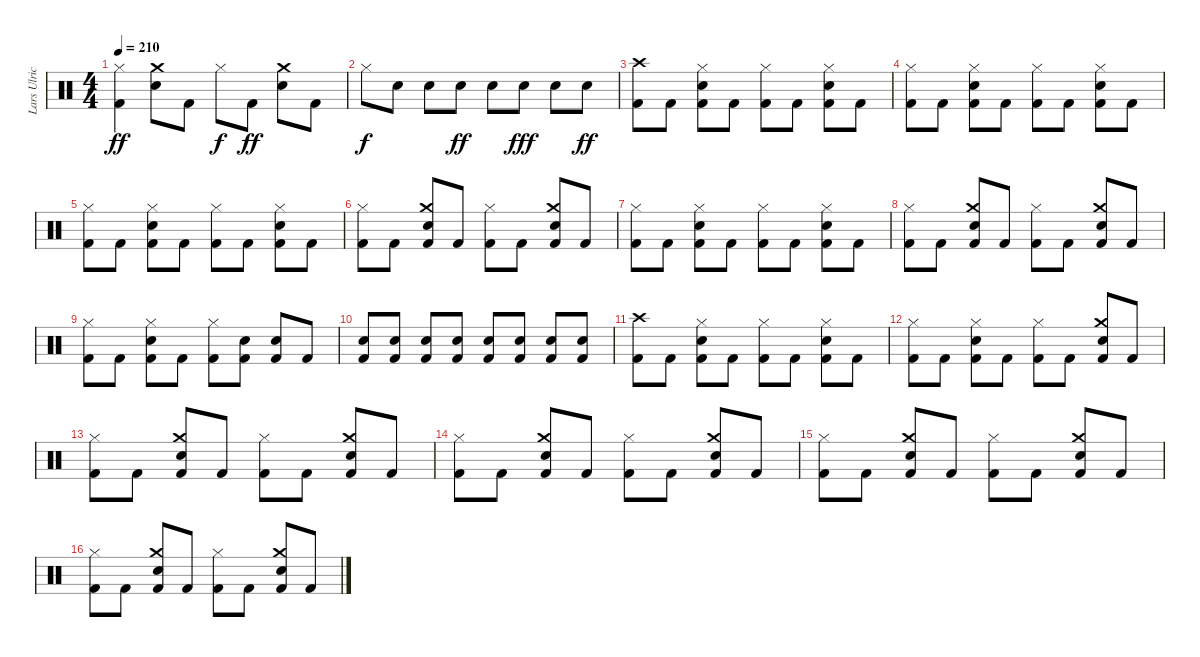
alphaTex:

\track ("Lars Ulrich" "Lars Ulric") {instrument percussion}
\staff {score}
\articulation defaults
\ts (4 4)
\tempo 210
\clef neutral
\ks c
("Hi-Hat (closed)" "Kick (hit) 2").4{dy ff} ("Crash medium (hit)" "Snare (hit) 2").8 "Kick (hit) 2".8 "Hi-Hat (closed)".8{dy f} "Kick (hit) 2".8{dy ff} ("Crash medium (hit)" "Snare (hit) 2").8 "Kick (hit) 2".8 |
"Hi-Hat (closed)".8{dy f} "Snare (hit) 2".8 "Snare (hit) 2".8 "Snare (hit) 2".8{dy ff} "Snare (hit) 2".8 "Snare (hit) 2".8{dy fff} "Snare (hit) 2".8 "Snare (hit) 2".8{dy ff} |
("Crash high (hit)" "Kick (hit) 2").8 "Kick (hit) 2".8 ("Hi-Hat (closed)" "Snare (hit) 2" "Kick (hit) 2").8 "Kick (hit) 2".8 ("Hi-Hat (closed)" "Kick (hit) 2").8 "Kick (hit) 2".8 ("Hi-Hat (closed)" "Snare (hit) 2" "Kick (hit) 2").8 "Kick (hit) 2".8 |
("Hi-Hat (closed)" "Kick (hit) 2").8 "Kick (hit) 2".8 ("Hi-Hat (closed)" "Snare (hit) 2" "Kick (hit) 2").8 "Kick (hit) 2".8 ("Hi-Hat (closed)" "Kick (hit) 2").8 "Kick (hit) 2".8 ("Hi-Hat (closed)" "Snare (hit) 2" "Kick (hit) 2").8 "Kick (hit) 2".8 |
("Hi-Hat (closed)" "Kick (hit) 2").8 "Kick (hit) 2".8 ("Hi-Hat (closed)" "Snare (hit) 2" "Kick (hit) 2").8 "Kick (hit) 2".8 ("Hi-Hat (closed)" "Kick (hit) 2").8 "Kick (hit) 2".8 ("Hi-Hat (closed)" "Snare (hit) 2" "Kick (hit) 2").8 "Kick (hit) 2".8 |
("Hi-Hat (closed)" "Kick (hit) 2").8 "Kick (hit) 2".8 ("Crash medium (hit)" "Snare (hit) 2" "Kick (hit) 2").8 "Kick (hit) 2".8 ("Hi-Hat (closed)" "Kick (hit) 2").8 "Kick (hit) 2".8 ("Crash medium (hit)" "Snare (hit) 2" "Kick (hit) 2").8 "Kick (hit) 2".8 |
("Hi-Hat (closed)" "Kick (hit) 2").8 "Kick (hit) 2".8 ("Hi-Hat (closed)" "Snare (hit) 2" "Kick (hit) 2").8 "Kick (hit) 2".8 ("Hi-Hat (closed)" "Kick (hit) 2").8 "Kick (hit) 2".8 ("Hi-Hat (closed)" "Snare (hit) 2" "Kick (hit) 2").8 "Kick (hit) 2".8 |
("Hi-Hat (closed)" "Kick (hit) 2").8 "Kick (hit) 2".8 ("Crash medium (hit)" "Snare (hit) 2" "Kick (hit) 2").8 "Kick (hit) 2".8 ("Hi-Hat (closed)" "Kick (hit) 2").8 "Kick (hit) 2".8 ("Crash medium (hit)" "Snare (hit) 2" "Kick (hit) 2").8 "Kick (hit) 2".8 |
("Hi-Hat (closed)" "Kick (hit) 2").8 "Kick (hit) 2".8 ("Hi-Hat (closed)" "Snare (hit) 2" "Kick (hit) 2").8 "Kick (hit) 2".8 ("Hi-Hat (closed)" "Kick (hit) 2").8 ("Snare (hit) 2" "Kick (hit) 2").8 ("Snare (hit) 2" "Kick (hit) 2").8 "Kick (hit) 2".8 |
("Snare (hit) 2" "Kick (hit) 2").8 ("Snare (hit) 2" "Kick (hit) 2").8 ("Snare (hit) 2" "Kick (hit) 2").8 ("Snare (hit) 2" "Kick (hit) 2").8 ("Snare (hit) 2" "Kick (hit) 2").8 ("Snare (hit) 2" "Kick (hit) 2").8 ("Snare (hit) 2" "Kick (hit) 2").8 ("Snare (hit) 2" "Kick (hit) 2").8 |
("Crash high (hit)" "Kick (hit) 2").8 "Kick (hit) 2".8 ("Hi-Hat (closed)" "Snare (hit) 2" "Kick (hit) 2").8 "Kick (hit) 2".8 ("Hi-Hat (closed)" "Kick (hit) 2").8 "Kick (hit) 2".8 ("Hi-Hat (closed)" "Snare (hit) 2" "Kick (hit) 2").8 "Kick (hit) 2".8 |
("Hi-Hat (closed)" "Kick (hit) 2").8 "Kick (hit) 2".8 ("Hi-Hat (closed)" "Snare (hit) 2" "Kick (hit) 2").8 "Kick (hit) 2".8 ("Hi-Hat (closed)" "Kick (hit) 2").8 "Kick (hit) 2".8 ("Crash medium (hit)" "Snare (hit) 2" "Kick (hit) 2").8 "Kick (hit) 2".8 |
("Hi-Hat (closed)" "Kick (hit) 2").8 "Kick (hit) 2".8 ("Crash medium (hit)" "Snare (hit) 2" "Kick (hit) 2").8 "Kick (hit) 2".8 ("Hi-Hat (closed)" "Kick (hit) 2").8 "Kick (hit) 2".8 ("Crash medium (hit)" "Snare (hit) 2" "Kick (hit) 2").8 "Kick (hit) 2".8 |
("Hi-Hat (closed)" "Kick (hit) 2").8 "Kick (hit) 2".8 ("Crash medium (hit)" "Snare (hit) 2" "Kick (hit) 2").8 "Kick (hit) 2".8 ("Hi-Hat (closed)" "Kick (hit) 2").8 "Kick (hit) 2".8 ("Crash medium (hit)" "Snare (hit) 2" "Kick (hit) 2").8 "Kick (hit) 2".8 |
("Hi-Hat (closed)" "Kick (hit) 2").8 "Kick (hit) 2".8 ("Crash medium (hit)" "Snare (hit) 2" "Kick (hit) 2").8 "Kick (hit) 2".8 ("Hi-Hat (closed)" "Kick (hit) 2").8 "Kick (hit) 2".8 ("Crash medium (hit)" "Snare (hit) 2" "Kick (hit) 2").8 "Kick (hit) 2".8 |
("Hi-Hat (closed)" "Kick (hit) 2").8 "Kick (hit) 2".8 ("Crash medium (hit)" "Snare (hit) 2" "Kick (hit) 2").8 "Kick (hit) 2".8 ("Hi-Hat (closed)" "Kick (hit) 2").8 "Kick (hit) 2".8 ("Crash medium (hit)" "Snare (hit) 2" "Kick (hit) 2").8 "Kick (hit) 2".8
